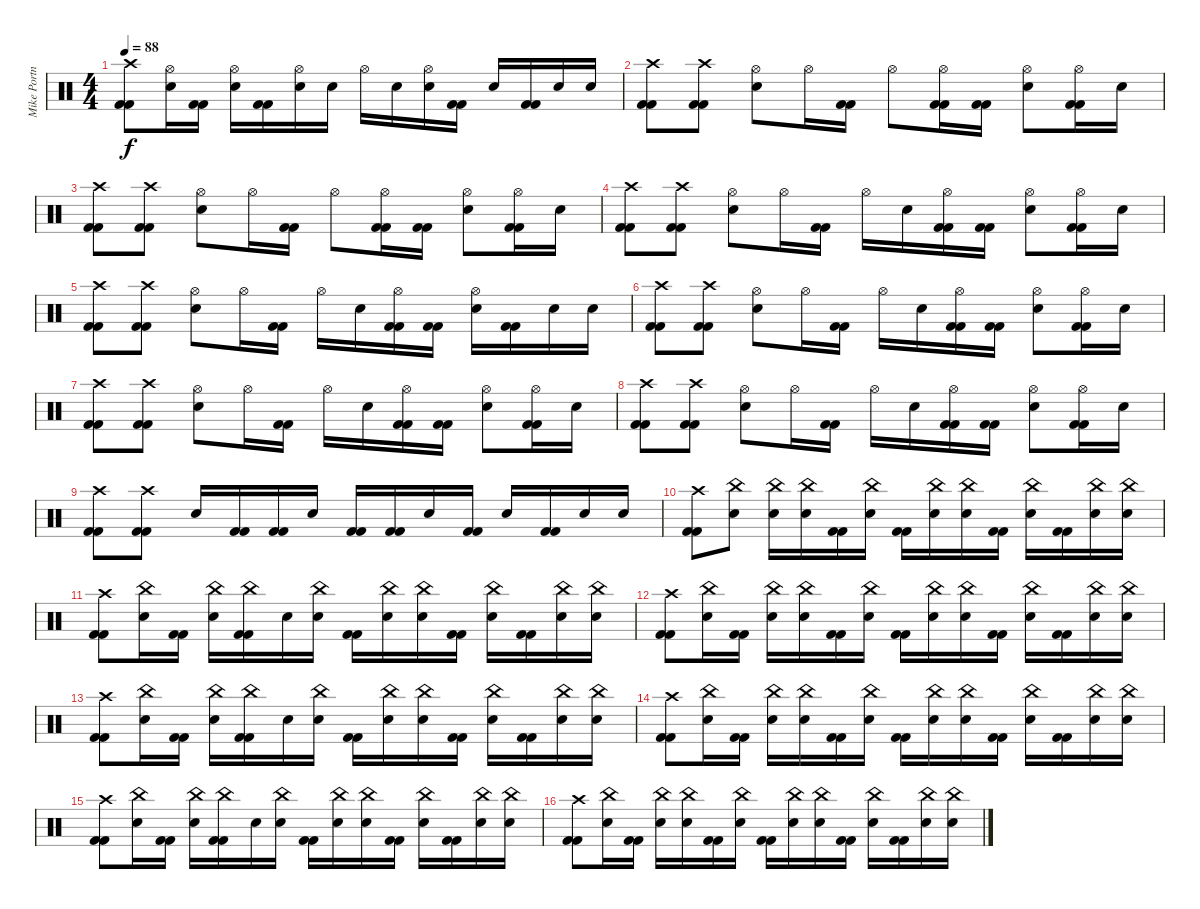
\track ("Mike Portnoy" "Mike Portn") {instrument percussion}
\staff {score}
\articulation defaults
\ts (4 4)
\tempo 88
\clef neutral
\ks c
("Crash high (hit)" "Kick (hit) 2" "Kick (hit) 2").8{dy f} ("Hi-Hat (open)" "Snare (hit) 2").16 ("Kick (hit) 2" "Kick (hit) 2").16 ("Hi-Hat (open)" "Snare (hit) 2").16 ("Kick (hit) 2" "Kick (hit) 2").16 ("Hi-Hat (open)" "Snare (hit) 2").16 "Snare (hit) 2".16 "Hi-Hat (open)".16 "Snare (hit) 2".16 ("Hi-Hat (open)" "Snare (hit) 2").16 ("Kick (hit) 2" "Kick (hit) 2").16 "Snare (hit) 2".16 ("Kick (hit) 2" "Kick (hit) 2").16 "Snare (hit) 2".16 "Snare (hit) 2".16 |
("Crash high (hit)" "Kick (hit) 2" "Kick (hit) 2").8{volume 13} ("Crash high (hit)" "Kick (hit) 2" "Kick (hit) 2").8 ("Hi-Hat (open)" "Snare (hit) 2").8 "Hi-Hat (open)".16 ("Kick (hit) 2" "Kick (hit) 2").16 "Hi-Hat (open)".8 ("Hi-Hat (open)" "Kick (hit) 2" "Kick (hit) 2").16 ("Kick (hit) 2" "Kick (hit) 2").16 ("Hi-Hat (open)" "Snare (hit) 2").8 ("Hi-Hat (open)" "Kick (hit) 2" "Kick (hit) 2").16 "Snare (hit) 2".16 |
("Crash high (hit)" "Kick (hit) 2" "Kick (hit) 2").8 ("Crash high (hit)" "Kick (hit) 2" "Kick (hit) 2").8 ("Hi-Hat (open)" "Snare (hit) 2").8 "Hi-Hat (open)".16 ("Kick (hit) 2" "Kick (hit) 2").16 "Hi-Hat (open)".8 ("Hi-Hat (open)" "Kick (hit) 2" "Kick (hit) 2").16 ("Kick (hit) 2" "Kick (hit) 2").16 ("Hi-Hat (open)" "Snare (hit) 2").8 ("Hi-Hat (open)" "Kick (hit) 2" "Kick (hit) 2").16 "Snare (hit) 2".16 |
("Crash high (hit)" "Kick (hit) 2" "Kick (hit) 2").8 ("Crash high (hit)" "Kick (hit) 2" "Kick (hit) 2").8 ("Hi-Hat (open)" "Snare (hit) 2").8 "Hi-Hat (open)".16 ("Kick (hit) 2" "Kick (hit) 2").16 "Hi-Hat (open)".16 "Snare (hit) 2".16 ("Hi-Hat (open)" "Kick (hit) 2" "Kick (hit) 2").16 ("Kick (hit) 2" "Kick (hit) 2").16 ("Hi-Hat (open)" "Snare (hit) 2").8 ("Hi-Hat (open)" "Kick (hit) 2" "Kick (hit) 2").16 "Snare (hit) 2".16 |
("Crash high (hit)" "Kick (hit) 2" "Kick (hit) 2").8 ("Crash high (hit)" "Kick (hit) 2" "Kick (hit) 2").8 ("Hi-Hat (open)" "Snare (hit) 2").8 "Hi-Hat (open)".16 ("Kick (hit) 2" "Kick (hit) 2").16 "Hi-Hat (open)".16 "Snare (hit) 2".16 ("Hi-Hat (open)" "Kick (hit) 2" "Kick (hit) 2").16 ("Kick (hit) 2" "Kick (hit) 2").16 ("Hi-Hat (open)" "Snare (hit) 2").16 ("Kick (hit) 2" "Kick (hit) 2").16 "Snare (hit) 2".16 "Snare (hit) 2".16 |
("Crash high (hit)" "Kick (hit) 2" "Kick (hit) 2").8 ("Crash high (hit)" "Kick (hit) 2" "Kick (hit) 2").8 ("Hi-Hat (open)" "Snare (hit) 2").8 "Hi-Hat (open)".16 ("Kick (hit) 2" "Kick (hit) 2").16 "Hi-Hat (open)".16 "Snare (hit) 2".16 ("Hi-Hat (open)" "Kick (hit) 2" "Kick (hit) 2").16 ("Kick (hit) 2" "Kick (hit) 2").16 ("Hi-Hat (open)" "Snare (hit) 2").8 ("Hi-Hat (open)" "Kick (hit) 2" "Kick (hit) 2").16 "Snare (hit) 2".16 |
("Crash high (hit)" "Kick (hit) 2" "Kick (hit) 2").8 ("Crash high (hit)" "Kick (hit) 2" "Kick (hit) 2").8 ("Hi-Hat (open)" "Snare (hit) 2").8 "Hi-Hat (open)".16 ("Kick (hit) 2" "Kick (hit) 2").16 "Hi-Hat (open)".16 "Snare (hit) 2".16 ("Hi-Hat (open)" "Kick (hit) 2" "Kick (hit) 2").16 ("Kick (hit) 2" "Kick (hit) 2").16 ("Hi-Hat (open)" "Snare (hit) 2").8 ("Hi-Hat (open)" "Kick (hit) 2" "Kick (hit) 2").16 "Snare (hit) 2".16 |
("Crash high (hit)" "Kick (hit) 2" "Kick (hit) 2").8 ("Crash high (hit)" "Kick (hit) 2" "Kick (hit) 2").8 ("Hi-Hat (open)" "Snare (hit) 2").8 "Hi-Hat (open)".16 ("Kick (hit) 2" "Kick (hit) 2").16 "Hi-Hat (open)".16 "Snare (hit) 2".16 ("Hi-Hat (open)" "Kick (hit) 2" "Kick (hit) 2").16 ("Kick (hit) 2" "Kick (hit) 2").16 ("Hi-Hat (open)" "Snare (hit) 2").8 ("Hi-Hat (open)" "Kick (hit) 2" "Kick (hit) 2").16 "Snare (hit) 2".16 |
("Crash high (hit)" "Kick (hit) 2" "Kick (hit) 2").8 ("Crash high (hit)" "Kick (hit) 2" "Kick (hit) 2").8 "Snare (hit) 2".16 ("Kick (hit) 2" "Kick (hit) 2").16 ("Kick (hit) 2" "Kick (hit) 2").16 "Snare (hit) 2".16 ("Kick (hit) 2" "Kick (hit) 2").16 ("Kick (hit) 2" "Kick (hit) 2").16 "Snare (hit) 2".16 ("Kick (hit) 2" "Kick (hit) 2").16 "Snare (hit) 2".16 ("Kick (hit) 2" "Kick (hit) 2").16 "Snare (hit) 2".16 "Snare (hit) 2".16 |
("Crash high (hit)" "Kick (hit) 2" "Kick (hit) 2").8 ("China (hit)" "Snare (hit) 2").8 ("China (hit)" "Snare (hit) 2").16 ("China (hit)" "Snare (hit) 2").16 ("Kick (hit) 2" "Kick (hit) 2").16 ("China (hit)" "Snare (hit) 2").16 ("Kick (hit) 2" "Kick (hit) 2").16 ("China (hit)" "Snare (hit) 2").16 ("China (hit)" "Snare (hit) 2").16 ("Kick (hit) 2" "Kick (hit) 2").16 ("China (hit)" "Snare (hit) 2").16 ("Kick (hit) 2" "Kick (hit) 2").16 ("China (hit)" "Snare (hit) 2").16 ("China (hit)" "Snare (hit) 2").16 |
("Crash high (hit)" "Kick (hit) 2" "Kick (hit) 2").8 ("China (hit)" "Snare (hit) 2").16 ("Kick (hit) 2" "Kick (hit) 2").16 ("China (hit)" "Snare (hit) 2").16 ("China (hit)" "Kick (hit) 2" "Kick (hit) 2").16 "Snare (hit) 2".16 ("China (hit)" "Snare (hit) 2").16 ("Kick (hit) 2" "Kick (hit) 2").16 ("China (hit)" "Snare (hit) 2").16 ("China (hit)" "Snare (hit) 2").16 ("Kick (hit) 2" "Kick (hit) 2").16 ("China (hit)" "Snare (hit) 2").16 ("Kick (hit) 2" "Kick (hit) 2").16 ("China (hit)" "Snare (hit) 2").16 ("China (hit)" "Snare (hit) 2").16 |
("Crash high (hit)" "Kick (hit) 2" "Kick (hit) 2").8 ("China (hit)" "Snare (hit) 2").16 ("Kick (hit) 2" "Kick (hit) 2").16 ("China (hit)" "Snare (hit) 2").16 ("China (hit)" "Snare (hit) 2").16 ("Kick (hit) 2" "Kick (hit) 2").16 ("China (hit)" "Snare (hit) 2").16 ("Kick (hit) 2" "Kick (hit) 2").16 ("China (hit)" "Snare (hit) 2").16 ("China (hit)" "Snare (hit) 2").16 ("Kick (hit) 2" "Kick (hit) 2").16 ("China (hit)" "Snare (hit) 2").16 ("Kick (hit) 2" "Kick (hit) 2").16 ("China (hit)" "Snare (hit) 2").16 ("China (hit)" "Snare (hit) 2").16 |
("Crash high (hit)" "Kick (hit) 2" "Kick (hit) 2").8 ("China (hit)" "Snare (hit) 2").16 ("Kick (hit) 2" "Kick (hit) 2").16 ("China (hit)" "Snare (hit) 2").16 ("China (hit)" "Kick (hit) 2" "Kick (hit) 2").16 "Snare (hit) 2".16 ("China (hit)" "Snare (hit) 2").16 ("Kick (hit) 2" "Kick (hit) 2").16 ("China (hit)" "Snare (hit) 2").16 ("China (hit)" "Snare (hit) 2").16 ("Kick (hit) 2" "Kick (hit) 2").16 ("China (hit)" "Snare (hit) 2").16 ("Kick (hit) 2" "Kick (hit) 2").16 ("China (hit)" "Snare (hit) 2").16 ("China (hit)" "Snare (hit) 2").16 |
("Crash high (hit)" "Kick (hit) 2" "Kick (hit) 2").8 ("China (hit)" "Snare (hit) 2").16 ("Kick (hit) 2" "Kick (hit) 2").16 ("China (hit)" "Snare (hit) 2").16 ("China (hit)" "Snare (hit) 2").16 ("Kick (hit) 2" "Kick (hit) 2").16 ("China (hit)" "Snare (hit) 2").16 ("Kick (hit) 2" "Kick (hit) 2").16 ("China (hit)" "Snare (hit) 2").16 ("China (hit)" "Snare (hit) 2").16 ("Kick (hit) 2" "Kick (hit) 2").16 ("China (hit)" "Snare (hit) 2").16 ("Kick (hit) 2" "Kick (hit) 2").16 ("China (hit)" "Snare (hit) 2").16 ("China (hit)" "Snare (hit) 2").16 |
("Crash high (hit)" "Kick (hit) 2" "Kick (hit) 2").8 ("China (hit)" "Snare (hit) 2").16 ("Kick (hit) 2" "Kick (hit) 2").16 ("China (hit)" "Snare (hit) 2").16 ("China (hit)" "Kick (hit) 2" "Kick (hit) 2").16 "Snare (hit) 2".16 ("China (hit)" "Snare (hit) 2").16 ("Kick (hit) 2" "Kick (hit) 2").16 ("China (hit)" "Snare (hit) 2").16 ("China (hit)" "Snare (hit) 2").16 ("Kick (hit) 2" "Kick (hit) 2").16 ("China (hit)" "Snare (hit) 2").16 ("Kick (hit) 2" "Kick (hit) 2").16 ("China (hit)" "Snare (hit) 2").16 ("China (hit)" "Snare (hit) 2").16 |
("Crash high (hit)" "Kick (hit) 2" "Kick (hit) 2").8 ("China (hit)" "Snare (hit) 2").16 ("Kick (hit) 2" "Kick (hit) 2").16 ("China (hit)" "Snare (hit) 2").16 ("China (hit)" "Snare (hit) 2").16 ("Kick (hit) 2" "Kick (hit) 2").16 ("China (hit)" "Snare (hit) 2").16 ("Kick (hit) 2" "Kick (hit) 2").16 ("China (hit)" "Snare (hit) 2").16 ("China (hit)" "Snare (hit) 2").16 ("Kick (hit) 2" "Kick (hit) 2").16 ("China (hit)" "Snare (hit) 2").16 ("Kick (hit) 2" "Kick (hit) 2").16 ("China (hit)" "Snare (hit) 2").16 ("China (hit)" "Snare (hit) 2").16
